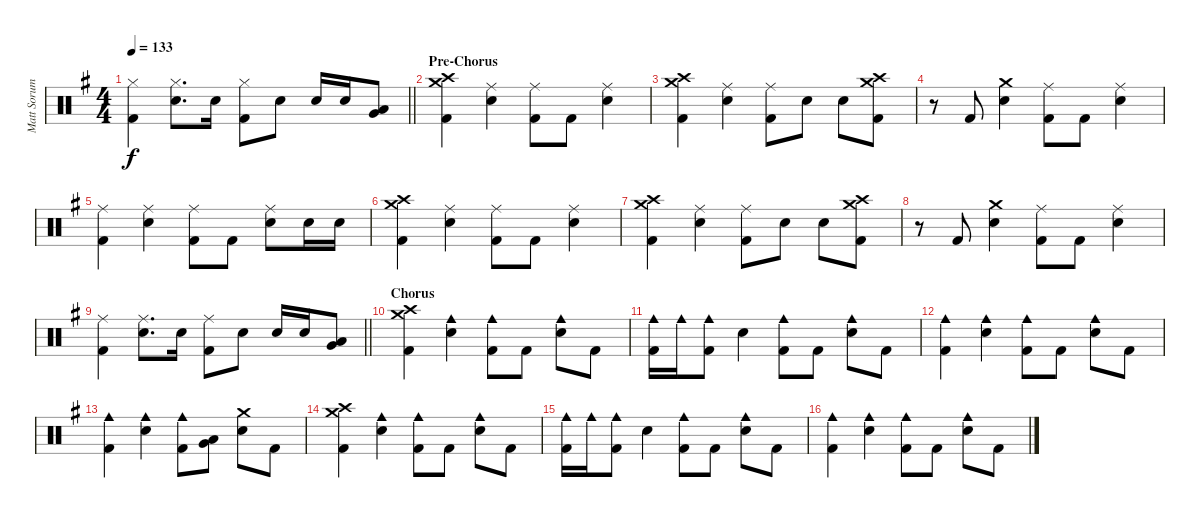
\track ("Matt Sorum - Drums" "Matt Sorum") {instrument percussion}
\staff {score}
\articulation defaults
\ts (4 4)
\tempo 133
\clef neutral
\barLineRight lightlight
\ks g
("Hi-Hat (closed)" "Kick (hit) 2").4{dy f} ("Hi-Hat (closed)" "Snare (hit) 2").8{d} "Snare (hit) 2".16 ("Hi-Hat (closed)" "Kick (hit) 2").8 "Snare (hit) 2".8 "Snare (hit) 2".16 "Snare (hit) 2".16 ("Low Tom (hit)" "Very Low Tom (hit)").8 |
\section ("" "Pre-Chorus")
("Crash medium (hit)" "Crash high (hit)" "Kick (hit) 2").4 ("Ride (middle)" "Snare (hit) 2").4 ("Ride (middle)" "Kick (hit) 2").8 "Kick (hit) 2".8 ("Ride (middle)" "Snare (hit) 2").4 |
("Crash medium (hit)" "Crash high (hit)" "Kick (hit) 2").4 ("Ride (middle)" "Snare (hit) 2").4 ("Ride (middle)" "Kick (hit) 2").8 "Snare (hit) 2".8 "Snare (hit) 2".8 ("Crash medium (hit)" "Crash high (hit)" "Kick (hit) 2").8 |
r.8 "Kick (hit) 2".8 ("Crash medium (hit)" "Snare (hit) 2").4 ("Ride (middle)" "Kick (hit) 2").8 "Kick (hit) 2".8 ("Ride (middle)" "Snare (hit) 2").4 |
("Ride (middle)" "Kick (hit) 2").4 ("Ride (middle)" "Snare (hit) 2").4 ("Ride (middle)" "Kick (hit) 2").8 "Kick (hit) 2".8 ("Ride (middle)" "Snare (hit) 2").8 "Snare (hit) 2".16 "Snare (hit) 2".16 |
("Crash medium (hit)" "Crash high (hit)" "Kick (hit) 2").4 ("Ride (middle)" "Snare (hit) 2").4 ("Ride (middle)" "Kick (hit) 2").8 "Kick (hit) 2".8 ("Ride (middle)" "Snare (hit) 2").4 |
("Crash medium (hit)" "Crash high (hit)" "Kick (hit) 2").4 ("Ride (middle)" "Snare (hit) 2").4 ("Ride (middle)" "Kick (hit) 2").8 "Snare (hit) 2".8 "Snare (hit) 2".8 ("Crash medium (hit)" "Crash high (hit)" "Kick (hit) 2").8 |
r.8 "Kick (hit) 2".8 ("Crash medium (hit)" "Snare (hit) 2").4 ("Ride (middle)" "Kick (hit) 2").8 "Kick (hit) 2".8 ("Ride (middle)" "Snare (hit) 2").4 |
\barLineRight lightlight
("Ride (middle)" "Kick (hit) 2").4 ("Ride (middle)" "Snare (hit) 2").8{d} "Snare (hit) 2".16 ("Ride (middle)" "Kick (hit) 2").8 "Snare (hit) 2".8 "Snare (hit) 2".16 "Snare (hit) 2".16 ("Low Tom (hit)" "Very Low Tom (hit)").8 |
\section ("" "Chorus")
("Crash medium (hit)" "Crash high (hit)" "Kick (hit) 2").4 ("Cowbell medium (hit)" "Snare (hit) 2").4 ("Cowbell medium (hit)" "Kick (hit) 2").8 "Kick (hit) 2".8 ("Cowbell medium (hit)" "Snare (hit) 2").8 "Kick (hit) 2".8 |
("Cowbell medium (hit)" "Kick (hit) 2").16 "Cowbell medium (hit)".16 ("Cowbell medium (hit)" "Kick (hit) 2").8 "Snare (hit) 2".4 ("Cowbell medium (hit)" "Kick (hit) 2").8 "Kick (hit) 2".8 ("Cowbell medium (hit)" "Snare (hit) 2").8 "Kick (hit) 2".8 |
("Cowbell medium (hit)" "Kick (hit) 2").4 ("Cowbell medium (hit)" "Snare (hit) 2").4 ("Cowbell medium (hit)" "Kick (hit) 2").8 "Kick (hit) 2".8 ("Cowbell medium (hit)" "Snare (hit) 2").8 "Kick (hit) 2".8 |
("Cowbell medium (hit)" "Kick (hit) 2").4 ("Cowbell medium (hit)" "Snare (hit) 2").4 ("Cowbell medium (hit)" "Kick (hit) 2").8 ("Low Tom (hit)" "Very Low Tom (hit)").8 ("Crash medium (hit)" "Snare (hit) 2").8 "Kick (hit) 2".8 |
("Crash medium (hit)" "Crash high (hit)" "Kick (hit) 2").4 ("Cowbell medium (hit)" "Snare (hit) 2").4 ("Cowbell medium (hit)" "Kick (hit) 2").8 "Kick (hit) 2".8 ("Cowbell medium (hit)" "Snare (hit) 2").8 "Kick (hit) 2".8 |
("Cowbell medium (hit)" "Kick (hit) 2").16 "Cowbell medium (hit)".16 ("Cowbell medium (hit)" "Kick (hit) 2").8 "Snare (hit) 2".4 ("Cowbell medium (hit)" "Kick (hit) 2").8 "Kick (hit) 2".8 ("Cowbell medium (hit)" "Snare (hit) 2").8 "Kick (hit) 2".8 |
("Cowbell medium (hit)" "Kick (hit) 2").4 ("Cowbell medium (hit)" "Snare (hit) 2").4 ("Cowbell medium (hit)" "Kick (hit) 2").8 "Kick (hit) 2".8 ("Cowbell medium (hit)" "Snare (hit) 2").8 "Kick (hit) 2".8
